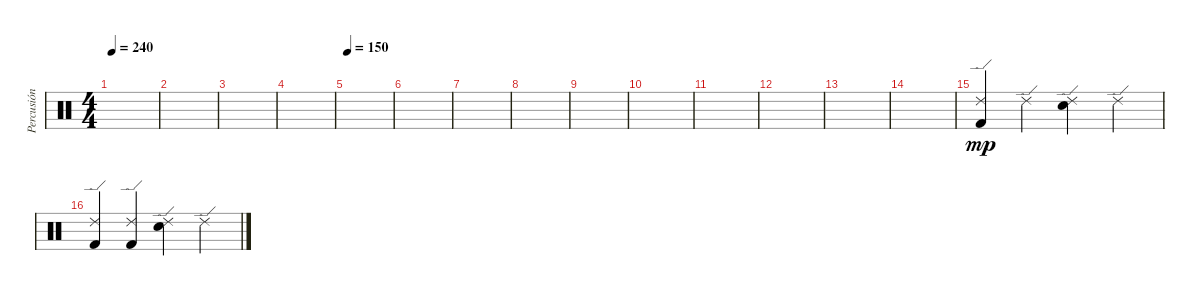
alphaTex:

\track ("Percusión" "Percusión") {instrument percussion}
\staff {score}
\articulation defaults
\ts (4 4)
\tempo 240
\clef neutral
\ks c
|
|
|
|
\tempo 150
|
|
|
|
|
|
|
|
|
|
("Ride (edge) 2" "Kick (hit) 2").4{dy mp} "Ride (edge) 2".4 ("Ride (edge) 2" "Snare (hit) 2").4 "Ride (edge) 2".4 |
("Ride (edge) 2" "Kick (hit) 2").4 ("Ride (edge) 2" "Kick (hit) 2").4 ("Ride (edge) 2" "Snare (hit) 2").4 "Ride (edge) 2".4
